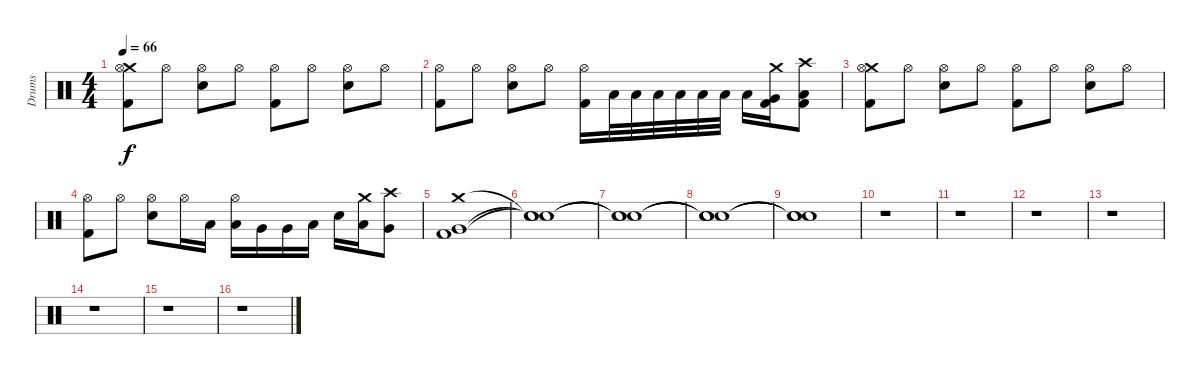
\track ("Drums" "Drums") {instrument percussion}
\staff {score}
\articulation defaults
\ts (4 4)
\tempo 66
\clef neutral
\ks c
("Crash medium (hit)" "Hi-Hat (open)" "Kick (hit) 2").8{dy f} "Hi-Hat (open)".8 ("Hi-Hat (open)" "Electric Snare (hit)").8 "Hi-Hat (open)".8 ("Hi-Hat (open)" "Kick (hit) 2").8 "Hi-Hat (open)".8 ("Hi-Hat (open)" "Electric Snare (hit)").8 "Hi-Hat (open)".8 |
("Hi-Hat (open)" "Kick (hit) 2").8 "Hi-Hat (open)".8 ("Hi-Hat (open)" "Electric Snare (hit)").8 "Hi-Hat (open)".8 ("Hi-Hat (open)" "Kick (hit) 2").16 "Low Floor Tom (hit)".32 "Low Floor Tom (hit)".32 "Low Floor Tom (hit)".32 "Low Floor Tom (hit)".32 "Low Floor Tom (hit)".32 "Low Floor Tom (hit)".32 "Low Floor Tom (hit)".16 ("Crash medium (hit)" "Very Low Tom (hit)" "Kick (hit) 2").16 ("Crash high (hit)" "Low Floor Tom (hit)" "Kick (hit) 2").8 |
("Crash medium (hit)" "Hi-Hat (open)" "Kick (hit) 2").8 "Hi-Hat (open)".8 ("Hi-Hat (open)" "Electric Snare (hit)").8 "Hi-Hat (open)".8 ("Hi-Hat (open)" "Kick (hit) 2").8 "Hi-Hat (open)".8 ("Hi-Hat (open)" "Electric Snare (hit)").8 "Hi-Hat (open)".8 |
("Hi-Hat (open)" "Kick (hit) 2").8 "Hi-Hat (open)".8 ("Hi-Hat (open)" "Electric Snare (hit)").8 "Hi-Hat (open)".16 "Low Floor Tom (hit)".16 ("Hi-Hat (open)" "Low Floor Tom (hit)").16 "Very Low Tom (hit)".16 "Very Low Tom (hit)".16 "Low Tom (hit)".16 "Electric Snare (hit)".16 ("Crash medium (hit)" "Low Tom (hit)").16 ("Crash high (hit)" "Very Low Tom (hit)").8 |
("Crash medium (hit)" "Very Low Tom (hit)" "Kick (hit) 2").1 |
("Snare (hit)"{t} "Snare (hit)"{t} "Snare (hit)"{t}).1 |
("Snare (hit)"{t} "Snare (hit)"{t} "Snare (hit)"{t}).1 |
("Snare (hit)"{t} "Snare (hit)"{t} "Snare (hit)"{t}).1 |
("Snare (hit)"{t} "Snare (hit)"{t} "Snare (hit)"{t}).1 |
r.1 |
r.1 |
r.1 |
r.1 |
r.1 |
r.1 |
r.1
